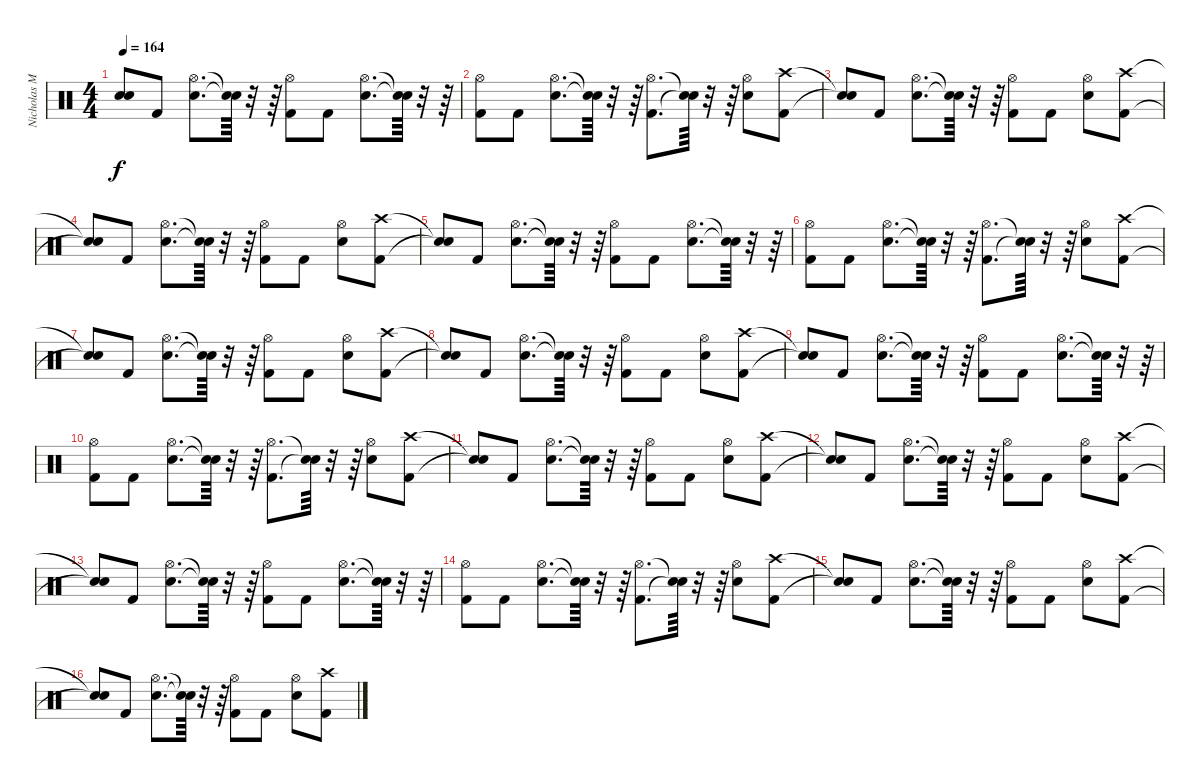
\track ("Nicholas McBrain (Drums)" "Nicholas M") {instrument percussion}
\staff {score}
\articulation defaults
\ts (4 4)
\tempo 164
\clef neutral
\ks c
("Snare (hit)"{t} "Snare (hit)"{t}).8{dy f} "Kick (hit) 2".8 ("Snare (hit) 2" "Hi-Hat (open)").8{d} ("Snare (hit)"{t} "Snare (hit)"{t}).64 r.32 r.64 ("Kick (hit) 2" "Hi-Hat (open)").8 "Kick (hit) 2".8 ("Snare (hit) 2" "Hi-Hat (open)").8{d} ("Snare (hit)"{t} "Snare (hit)"{t}).64 r.32 r.64 |
("Kick (hit) 2" "Hi-Hat (open)").8 "Kick (hit) 2".8 ("Snare (hit) 2" "Hi-Hat (open)").8{d} ("Snare (hit)"{t} "Snare (hit)"{t}).64 r.32 r.64 ("Kick (hit) 2" "Hi-Hat (open)").8{d} ("Snare (hit)"{t} "Snare (hit)"{t}).64 r.32 r.64 ("Snare (hit) 2" "Hi-Hat (open)").8 ("Kick (hit) 2" "Crash high (hit)").8 |
("Snare (hit)"{t} "Snare (hit)"{t}).8 "Kick (hit) 2".8 ("Snare (hit) 2" "Hi-Hat (open)").8{d} ("Snare (hit)"{t} "Snare (hit)"{t}).64 r.32 r.64 ("Kick (hit) 2" "Hi-Hat (open)").8 "Kick (hit) 2".8 ("Snare (hit) 2" "Hi-Hat (open)").8 ("Kick (hit) 2" "Crash high (hit)").8 |
("Snare (hit)"{t} "Snare (hit)"{t}).8 "Kick (hit) 2".8 ("Snare (hit) 2" "Hi-Hat (open)").8{d} ("Snare (hit)"{t} "Snare (hit)"{t}).64 r.32 r.64 ("Kick (hit) 2" "Hi-Hat (open)").8 "Kick (hit) 2".8 ("Snare (hit) 2" "Hi-Hat (open)").8 ("Kick (hit) 2" "Crash high (hit)").8 |
("Snare (hit)"{t} "Snare (hit)"{t}).8 "Kick (hit) 2".8 ("Snare (hit) 2" "Hi-Hat (open)").8{d} ("Snare (hit)"{t} "Snare (hit)"{t}).64 r.32 r.64 ("Kick (hit) 2" "Hi-Hat (open)").8 "Kick (hit) 2".8 ("Snare (hit) 2" "Hi-Hat (open)").8{d} ("Snare (hit)"{t} "Snare (hit)"{t}).64 r.32 r.64 |
("Kick (hit) 2" "Hi-Hat (open)").8 "Kick (hit) 2".8 ("Snare (hit) 2" "Hi-Hat (open)").8{d} ("Snare (hit)"{t} "Snare (hit)"{t}).64 r.32 r.64 ("Kick (hit) 2" "Hi-Hat (open)").8{d} ("Snare (hit)"{t} "Snare (hit)"{t}).64 r.32 r.64 ("Snare (hit) 2" "Hi-Hat (open)").8 ("Kick (hit) 2" "Crash high (hit)").8 |
("Snare (hit)"{t} "Snare (hit)"{t}).8 "Kick (hit) 2".8 ("Snare (hit) 2" "Hi-Hat (open)").8{d} ("Snare (hit)"{t} "Snare (hit)"{t}).64 r.32 r.64 ("Kick (hit) 2" "Hi-Hat (open)").8 "Kick (hit) 2".8 ("Snare (hit) 2" "Hi-Hat (open)").8 ("Kick (hit) 2" "Crash high (hit)").8 |
("Snare (hit)"{t} "Snare (hit)"{t}).8 "Kick (hit) 2".8 ("Snare (hit) 2" "Hi-Hat (open)").8{d} ("Snare (hit)"{t} "Snare (hit)"{t}).64 r.32 r.64 ("Kick (hit) 2" "Hi-Hat (open)").8 "Kick (hit) 2".8 ("Snare (hit) 2" "Hi-Hat (open)").8 ("Kick (hit) 2" "Crash high (hit)").8 |
("Snare (hit)"{t} "Snare (hit)"{t}).8 "Kick (hit) 2".8 ("Snare (hit) 2" "Hi-Hat (open)").8{d} ("Snare (hit)"{t} "Snare (hit)"{t}).64 r.32 r.64 ("Kick (hit) 2" "Hi-Hat (open)").8 "Kick (hit) 2".8 ("Snare (hit) 2" "Hi-Hat (open)").8{d} ("Snare (hit)"{t} "Snare (hit)"{t}).64 r.32 r.64 |
("Kick (hit) 2" "Hi-Hat (open)").8 "Kick (hit) 2".8 ("Snare (hit) 2" "Hi-Hat (open)").8{d} ("Snare (hit)"{t} "Snare (hit)"{t}).64 r.32 r.64 ("Kick (hit) 2" "Hi-Hat (open)").8{d} ("Snare (hit)"{t} "Snare (hit)"{t}).64 r.32 r.64 ("Snare (hit) 2" "Hi-Hat (open)").8 ("Kick (hit) 2" "Crash high (hit)").8 |
("Snare (hit)"{t} "Snare (hit)"{t}).8 "Kick (hit) 2".8 ("Snare (hit) 2" "Hi-Hat (open)").8{d} ("Snare (hit)"{t} "Snare (hit)"{t}).64 r.32 r.64 ("Kick (hit) 2" "Hi-Hat (open)").8 "Kick (hit) 2".8 ("Snare (hit) 2" "Hi-Hat (open)").8 ("Kick (hit) 2" "Crash high (hit)").8 |
("Snare (hit)"{t} "Snare (hit)"{t}).8 "Kick (hit) 2".8 ("Snare (hit) 2" "Hi-Hat (open)").8{d} ("Snare (hit)"{t} "Snare (hit)"{t}).64 r.32 r.64 ("Kick (hit) 2" "Hi-Hat (open)").8 "Kick (hit) 2".8 ("Snare (hit) 2" "Hi-Hat (open)").8 ("Kick (hit) 2" "Crash high (hit)").8 |
("Snare (hit)"{t} "Snare (hit)"{t}).8 "Kick (hit) 2".8 ("Snare (hit) 2" "Hi-Hat (open)").8{d} ("Snare (hit)"{t} "Snare (hit)"{t}).64 r.32 r.64 ("Kick (hit) 2" "Hi-Hat (open)").8 "Kick (hit) 2".8 ("Snare (hit) 2" "Hi-Hat (open)").8{d} ("Snare (hit)"{t} "Snare (hit)"{t}).64 r.32 r.64 |
("Kick (hit) 2" "Hi-Hat (open)").8 "Kick (hit) 2".8 ("Snare (hit) 2" "Hi-Hat (open)").8{d} ("Snare (hit)"{t} "Snare (hit)"{t}).64 r.32 r.64 ("Kick (hit) 2" "Hi-Hat (open)").8{d} ("Snare (hit)"{t} "Snare (hit)"{t}).64 r.32 r.64 ("Snare (hit) 2" "Hi-Hat (open)").8 ("Kick (hit) 2" "Crash high (hit)").8 |
("Snare (hit)"{t} "Snare (hit)"{t}).8 "Kick (hit) 2".8 ("Snare (hit) 2" "Hi-Hat (open)").8{d} ("Snare (hit)"{t} "Snare (hit)"{t}).64 r.32 r.64 ("Kick (hit) 2" "Hi-Hat (open)").8 "Kick (hit) 2".8 ("Snare (hit) 2" "Hi-Hat (open)").8 ("Kick (hit) 2" "Crash high (hit)").8 |
("Snare (hit)"{t} "Snare (hit)"{t}).8 "Kick (hit) 2".8 ("Snare (hit) 2" "Hi-Hat (open)").8{d} ("Snare (hit)"{t} "Snare (hit)"{t}).64 r.32 r.64 ("Kick (hit) 2" "Hi-Hat (open)").8 "Kick (hit) 2".8 ("Snare (hit) 2" "Hi-Hat (open)").8 ("Kick (hit) 2" "Crash high (hit)").8
